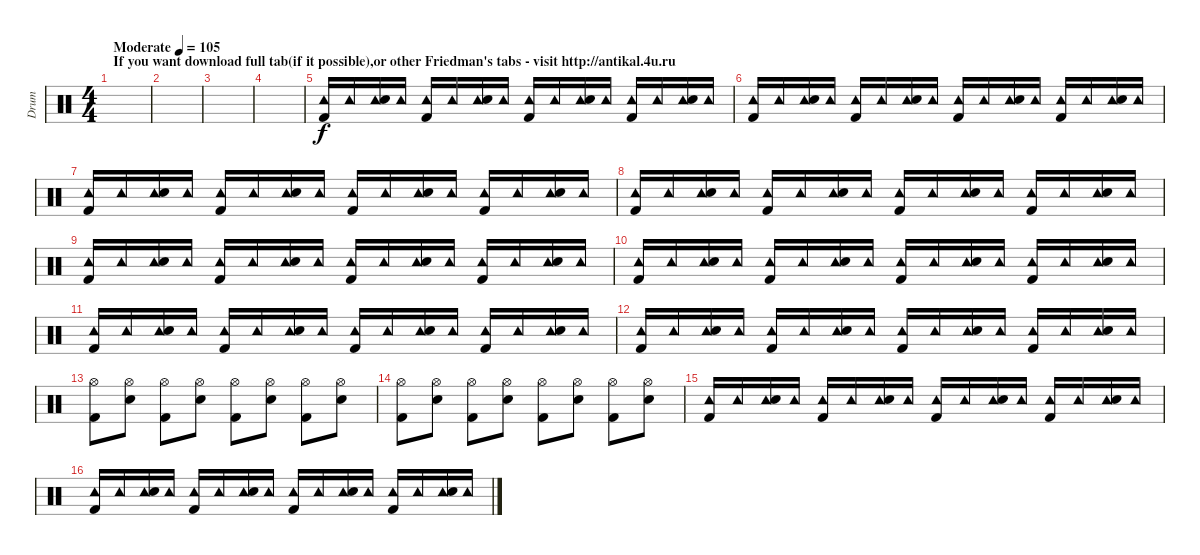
\track ("Drum" "Drum") {instrument percussion}
\staff {score}
\articulation defaults
\ts (4 4)
\section ("" "If you want download full tab(if it possible),or other Friedman's tabs - visit http://antikal.4u.ru")
\tempo (105 "Moderate")
\clef neutral
\ks c
|
|
|
|
("Tambourine (hit)" "Kick (hit) 2").16 "Tambourine (hit)".16 ("Tambourine (hit)" "Electric Snare (hit)").16 "Tambourine (hit)".16 ("Tambourine (hit)" "Kick (hit) 2").16 "Tambourine (hit)".16 ("Tambourine (hit)" "Electric Snare (hit)").16 "Tambourine (hit)".16 ("Tambourine (hit)" "Kick (hit) 2").16 "Tambourine (hit)".16 ("Tambourine (hit)" "Electric Snare (hit)").16 "Tambourine (hit)".16 ("Tambourine (hit)" "Kick (hit) 2").16 "Tambourine (hit)".16 ("Tambourine (hit)" "Electric Snare (hit)").16 "Tambourine (hit)".16 |
("Tambourine (hit)" "Kick (hit) 2").16 "Tambourine (hit)".16 ("Tambourine (hit)" "Electric Snare (hit)").16 "Tambourine (hit)".16 ("Tambourine (hit)" "Kick (hit) 2").16 "Tambourine (hit)".16 ("Tambourine (hit)" "Electric Snare (hit)").16 "Tambourine (hit)".16 ("Tambourine (hit)" "Kick (hit) 2").16 "Tambourine (hit)".16 ("Tambourine (hit)" "Electric Snare (hit)").16 "Tambourine (hit)".16 ("Tambourine (hit)" "Kick (hit) 2").16 "Tambourine (hit)".16 ("Tambourine (hit)" "Electric Snare (hit)").16 "Tambourine (hit)".16 |
("Tambourine (hit)" "Kick (hit) 2").16 "Tambourine (hit)".16 ("Tambourine (hit)" "Electric Snare (hit)").16 "Tambourine (hit)".16 ("Tambourine (hit)" "Kick (hit) 2").16 "Tambourine (hit)".16 ("Tambourine (hit)" "Electric Snare (hit)").16 "Tambourine (hit)".16 ("Tambourine (hit)" "Kick (hit) 2").16 "Tambourine (hit)".16 ("Tambourine (hit)" "Electric Snare (hit)").16 "Tambourine (hit)".16 ("Tambourine (hit)" "Kick (hit) 2").16 "Tambourine (hit)".16 ("Tambourine (hit)" "Electric Snare (hit)").16 "Tambourine (hit)".16 |
("Tambourine (hit)" "Kick (hit) 2").16 "Tambourine (hit)".16 ("Tambourine (hit)" "Electric Snare (hit)").16 "Tambourine (hit)".16 ("Tambourine (hit)" "Kick (hit) 2").16 "Tambourine (hit)".16 ("Tambourine (hit)" "Electric Snare (hit)").16 "Tambourine (hit)".16 ("Tambourine (hit)" "Kick (hit) 2").16 "Tambourine (hit)".16 ("Tambourine (hit)" "Electric Snare (hit)").16 "Tambourine (hit)".16 ("Tambourine (hit)" "Kick (hit) 2").16 "Tambourine (hit)".16 ("Tambourine (hit)" "Electric Snare (hit)").16 "Tambourine (hit)".16 |
("Tambourine (hit)" "Kick (hit) 2").16 "Tambourine (hit)".16 ("Tambourine (hit)" "Electric Snare (hit)").16 "Tambourine (hit)".16 ("Tambourine (hit)" "Kick (hit) 2").16 "Tambourine (hit)".16 ("Tambourine (hit)" "Electric Snare (hit)").16 "Tambourine (hit)".16 ("Tambourine (hit)" "Kick (hit) 2").16 "Tambourine (hit)".16 ("Tambourine (hit)" "Electric Snare (hit)").16 "Tambourine (hit)".16 ("Tambourine (hit)" "Kick (hit) 2").16 "Tambourine (hit)".16 ("Tambourine (hit)" "Electric Snare (hit)").16 "Tambourine (hit)".16 |
("Tambourine (hit)" "Kick (hit) 2").16 "Tambourine (hit)".16 ("Tambourine (hit)" "Electric Snare (hit)").16 "Tambourine (hit)".16 ("Tambourine (hit)" "Kick (hit) 2").16 "Tambourine (hit)".16 ("Tambourine (hit)" "Electric Snare (hit)").16 "Tambourine (hit)".16 ("Tambourine (hit)" "Kick (hit) 2").16 "Tambourine (hit)".16 ("Tambourine (hit)" "Electric Snare (hit)").16 "Tambourine (hit)".16 ("Tambourine (hit)" "Kick (hit) 2").16 "Tambourine (hit)".16 ("Tambourine (hit)" "Electric Snare (hit)").16 "Tambourine (hit)".16 |
("Tambourine (hit)" "Kick (hit) 2").16 "Tambourine (hit)".16 ("Tambourine (hit)" "Electric Snare (hit)").16 "Tambourine (hit)".16 ("Tambourine (hit)" "Kick (hit) 2").16 "Tambourine (hit)".16 ("Tambourine (hit)" "Electric Snare (hit)").16 "Tambourine (hit)".16 ("Tambourine (hit)" "Kick (hit) 2").16 "Tambourine (hit)".16 ("Tambourine (hit)" "Electric Snare (hit)").16 "Tambourine (hit)".16 ("Tambourine (hit)" "Kick (hit) 2").16 "Tambourine (hit)".16 ("Tambourine (hit)" "Electric Snare (hit)").16 "Tambourine (hit)".16 |
("Tambourine (hit)" "Kick (hit) 2").16 "Tambourine (hit)".16 ("Tambourine (hit)" "Electric Snare (hit)").16 "Tambourine (hit)".16 ("Tambourine (hit)" "Kick (hit) 2").16 "Tambourine (hit)".16 ("Tambourine (hit)" "Electric Snare (hit)").16 "Tambourine (hit)".16 ("Tambourine (hit)" "Kick (hit) 2").16 "Tambourine (hit)".16 ("Tambourine (hit)" "Electric Snare (hit)").16 "Tambourine (hit)".16 ("Tambourine (hit)" "Kick (hit) 2").16 "Tambourine (hit)".16 ("Tambourine (hit)" "Electric Snare (hit)").16 "Tambourine (hit)".16 |
("Hi-Hat (open)" "Kick (hit) 2").8 ("Hi-Hat (open)" "Electric Snare (hit)").8 ("Hi-Hat (open)" "Kick (hit) 2").8 ("Hi-Hat (open)" "Electric Snare (hit)").8 ("Hi-Hat (open)" "Kick (hit) 2").8 ("Hi-Hat (open)" "Electric Snare (hit)").8 ("Hi-Hat (open)" "Kick (hit) 2").8 ("Hi-Hat (open)" "Electric Snare (hit)").8 |
("Hi-Hat (open)" "Kick (hit) 2").8 ("Hi-Hat (open)" "Electric Snare (hit)").8 ("Hi-Hat (open)" "Kick (hit) 2").8 ("Hi-Hat (open)" "Electric Snare (hit)").8 ("Hi-Hat (open)" "Kick (hit) 2").8 ("Hi-Hat (open)" "Electric Snare (hit)").8 ("Hi-Hat (open)" "Kick (hit) 2").8 ("Hi-Hat (open)" "Electric Snare (hit)").8 |
("Tambourine (hit)" "Kick (hit) 2").16 "Tambourine (hit)".16 ("Tambourine (hit)" "Electric Snare (hit)").16 "Tambourine (hit)".16 ("Tambourine (hit)" "Kick (hit) 2").16 "Tambourine (hit)".16 ("Tambourine (hit)" "Electric Snare (hit)").16 "Tambourine (hit)".16 ("Tambourine (hit)" "Kick (hit) 2").16 "Tambourine (hit)".16 ("Tambourine (hit)" "Electric Snare (hit)").16 "Tambourine (hit)".16 ("Tambourine (hit)" "Kick (hit) 2").16 "Tambourine (hit)".16 ("Tambourine (hit)" "Electric Snare (hit)").16 "Tambourine (hit)".16 |
("Tambourine (hit)" "Kick (hit) 2").16 "Tambourine (hit)".16 ("Tambourine (hit)" "Electric Snare (hit)").16 "Tambourine (hit)".16 ("Tambourine (hit)" "Kick (hit) 2").16 "Tambourine (hit)".16 ("Tambourine (hit)" "Electric Snare (hit)").16 "Tambourine (hit)".16 ("Tambourine (hit)" "Kick (hit) 2").16 "Tambourine (hit)".16 ("Tambourine (hit)" "Electric Snare (hit)").16 "Tambourine (hit)".16 ("Tambourine (hit)" "Kick (hit) 2").16 "Tambourine (hit)".16 ("Tambourine (hit)" "Electric Snare (hit)").16 "Tambourine (hit)".16
